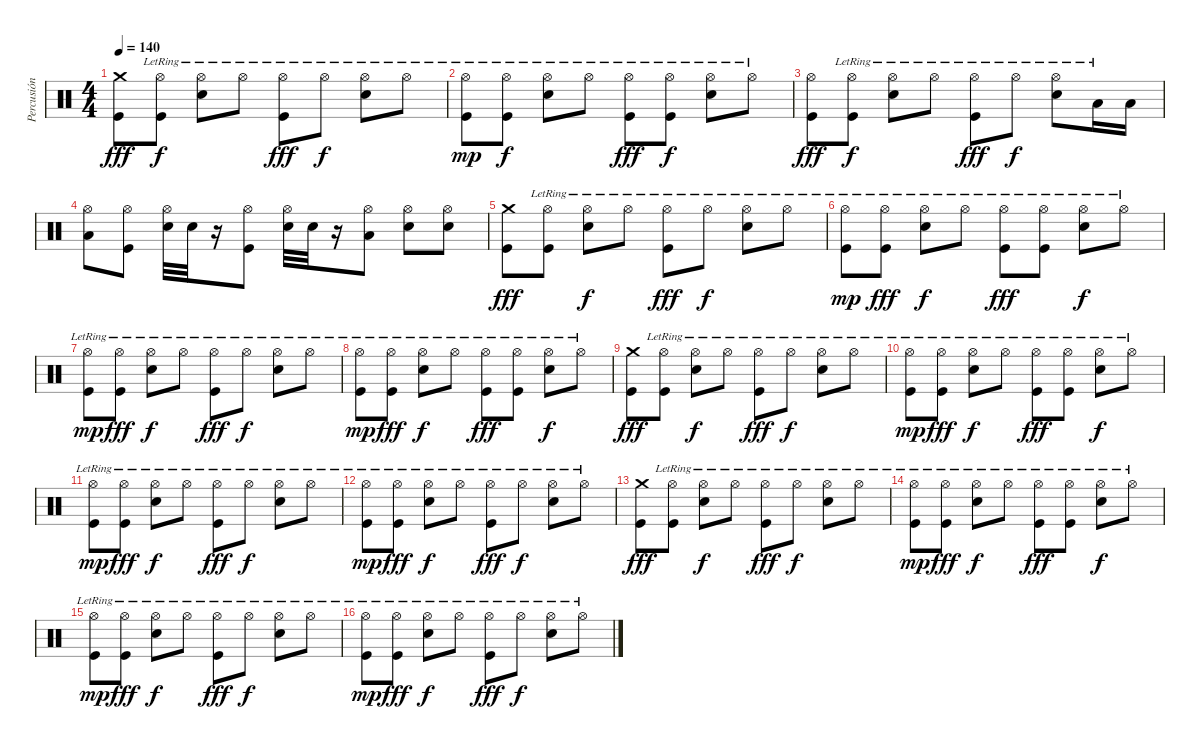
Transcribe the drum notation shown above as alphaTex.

\track ("Percusión" "Percusión") {instrument percussion}
\staff {score}
\articulation defaults
\ts (4 4)
\tempo 140
\clef neutral
\ks c
("Kick (hit)" "Crash medium (hit)").8{dy fff} ("Kick (hit)" "Hi-Hat (open)"{lr}).8{dy f} ("Snare (hit) 2" "Hi-Hat (open)"{lr}).8 "Hi-Hat (open)"{lr}.8 ("Kick (hit)" "Hi-Hat (open)"{lr}).8{dy fff} "Hi-Hat (open)"{lr}.8{dy f} ("Snare (hit) 2" "Hi-Hat (open)"{lr}).8 "Hi-Hat (open)"{lr}.8 |
("Kick (hit)" "Hi-Hat (open)"{lr}).8{dy mp} ("Kick (hit)" "Hi-Hat (open)"{lr}).8{dy f} ("Snare (hit) 2" "Hi-Hat (open)"{lr}).8 "Hi-Hat (open)"{lr}.8 ("Kick (hit)" "Hi-Hat (open)"{lr}).8{dy fff} ("Kick (hit)" "Hi-Hat (open)"{lr}).8{dy f} ("Snare (hit) 2" "Hi-Hat (open)"{lr}).8 "Hi-Hat (open)"{lr}.8 |
("Kick (hit)" "Hi-Hat (open)").8{dy fff} ("Kick (hit)" "Hi-Hat (open)"{lr}).8{dy f} ("Snare (hit) 2" "Hi-Hat (open)"{lr}).8 "Hi-Hat (open)"{lr}.8 ("Kick (hit)" "Hi-Hat (open)"{lr}).8{dy fff} "Hi-Hat (open)"{lr}.8{dy f} ("Snare (hit) 2" "Hi-Hat (open)"{lr}).8 "Low Tom (hit)"{lr}.16 "Low Tom (hit)".16 |
("Low Tom (hit)" "Hi-Hat (open)").8 ("Kick (hit)" "Hi-Hat (open)").8 ("Snare (hit) 2" "Hi-Hat (open)").32 "Snare (hit) 2".32 r.16 ("Kick (hit)" "Hi-Hat (open)").8 ("Snare (hit) 2" "Hi-Hat (open)").32 "Snare (hit) 2".32 r.16 ("Low Tom (hit)" "Hi-Hat (open)").8 ("Snare (hit) 2" "Hi-Hat (open)").8 ("Snare (hit) 2" "Hi-Hat (open)").8 |
("Kick (hit)" "Crash medium (hit)").8{dy fff} ("Kick (hit)" "Hi-Hat (open)"{lr}).8 ("Snare (hit) 2" "Hi-Hat (open)"{lr}).8{dy f} "Hi-Hat (open)"{lr}.8 ("Kick (hit)" "Hi-Hat (open)"{lr}).8{dy fff} "Hi-Hat (open)"{lr}.8{dy f} ("Snare (hit) 2" "Hi-Hat (open)"{lr}).8 "Hi-Hat (open)"{lr}.8 |
("Kick (hit)" "Hi-Hat (open)"{lr}).8{dy mp} ("Kick (hit)" "Hi-Hat (open)"{lr}).8{dy fff} ("Snare (hit) 2" "Hi-Hat (open)"{lr}).8{dy f} "Hi-Hat (open)"{lr}.8 ("Kick (hit)" "Hi-Hat (open)"{lr}).8{dy fff} ("Kick (hit)" "Hi-Hat (open)"{lr}).8 ("Snare (hit) 2" "Hi-Hat (open)"{lr}).8{dy f} "Hi-Hat (open)"{lr}.8 |
("Kick (hit)" "Hi-Hat (open)"{lr}).8{dy mp} ("Kick (hit)" "Hi-Hat (open)"{lr}).8{dy fff} ("Snare (hit) 2" "Hi-Hat (open)"{lr}).8{dy f} "Hi-Hat (open)"{lr}.8 ("Kick (hit)" "Hi-Hat (open)"{lr}).8{dy fff} "Hi-Hat (open)"{lr}.8{dy f} ("Snare (hit) 2" "Hi-Hat (open)"{lr}).8 "Hi-Hat (open)"{lr}.8 |
("Kick (hit)" "Hi-Hat (open)"{lr}).8{dy mp} ("Kick (hit)" "Hi-Hat (open)"{lr}).8{dy fff} ("Snare (hit) 2" "Hi-Hat (open)"{lr}).8{dy f} "Hi-Hat (open)"{lr}.8 ("Kick (hit)" "Hi-Hat (open)"{lr}).8{dy fff} ("Kick (hit)" "Hi-Hat (open)"{lr}).8 ("Snare (hit) 2" "Hi-Hat (open)"{lr}).8{dy f} "Hi-Hat (open)"{lr}.8 |
("Kick (hit)" "Crash medium (hit)").8{dy fff} ("Kick (hit)" "Hi-Hat (open)"{lr}).8 ("Snare (hit) 2" "Hi-Hat (open)"{lr}).8{dy f} "Hi-Hat (open)"{lr}.8 ("Kick (hit)" "Hi-Hat (open)"{lr}).8{dy fff} "Hi-Hat (open)"{lr}.8{dy f} ("Snare (hit) 2" "Hi-Hat (open)"{lr}).8 "Hi-Hat (open)"{lr}.8 |
("Kick (hit)" "Hi-Hat (open)"{lr}).8{dy mp} ("Kick (hit)" "Hi-Hat (open)"{lr}).8{dy fff} ("Snare (hit) 2" "Hi-Hat (open)"{lr}).8{dy f} "Hi-Hat (open)"{lr}.8 ("Kick (hit)" "Hi-Hat (open)"{lr}).8{dy fff} ("Kick (hit)" "Hi-Hat (open)"{lr}).8 ("Snare (hit) 2" "Hi-Hat (open)"{lr}).8{dy f} "Hi-Hat (open)"{lr}.8 |
("Kick (hit)" "Hi-Hat (open)"{lr}).8{dy mp} ("Kick (hit)" "Hi-Hat (open)"{lr}).8{dy fff} ("Snare (hit) 2" "Hi-Hat (open)"{lr}).8{dy f} "Hi-Hat (open)"{lr}.8 ("Kick (hit)" "Hi-Hat (open)"{lr}).8{dy fff} "Hi-Hat (open)"{lr}.8{dy f} ("Snare (hit) 2" "Hi-Hat (open)"{lr}).8 "Hi-Hat (open)"{lr}.8 |
("Kick (hit)" "Hi-Hat (open)"{lr}).8{dy mp} ("Kick (hit)" "Hi-Hat (open)"{lr}).8{dy fff} ("Snare (hit) 2" "Hi-Hat (open)"{lr}).8{dy f} "Hi-Hat (open)"{lr}.8 ("Kick (hit)" "Hi-Hat (open)"{lr}).8{dy fff} "Hi-Hat (open)"{lr}.8{dy f} ("Snare (hit) 2" "Hi-Hat (open)"{lr}).8 "Hi-Hat (open)"{lr}.8 |
("Kick (hit)" "Crash medium (hit)").8{dy fff} ("Kick (hit)" "Hi-Hat (open)"{lr}).8 ("Snare (hit) 2" "Hi-Hat (open)"{lr}).8{dy f} "Hi-Hat (open)"{lr}.8 ("Kick (hit)" "Hi-Hat (open)"{lr}).8{dy fff} "Hi-Hat (open)"{lr}.8{dy f} ("Snare (hit) 2" "Hi-Hat (open)"{lr}).8 "Hi-Hat (open)"{lr}.8 |
("Kick (hit)" "Hi-Hat (open)"{lr}).8{dy mp} ("Kick (hit)" "Hi-Hat (open)"{lr}).8{dy fff} ("Snare (hit) 2" "Hi-Hat (open)"{lr}).8{dy f} "Hi-Hat (open)"{lr}.8 ("Kick (hit)" "Hi-Hat (open)"{lr}).8{dy fff} ("Kick (hit)" "Hi-Hat (open)"{lr}).8 ("Snare (hit) 2" "Hi-Hat (open)"{lr}).8{dy f} "Hi-Hat (open)"{lr}.8 |
("Kick (hit)" "Hi-Hat (open)"{lr}).8{dy mp} ("Kick (hit)" "Hi-Hat (open)"{lr}).8{dy fff} ("Snare (hit) 2" "Hi-Hat (open)"{lr}).8{dy f} "Hi-Hat (open)"{lr}.8 ("Kick (hit)" "Hi-Hat (open)"{lr}).8{dy fff} "Hi-Hat (open)"{lr}.8{dy f} ("Snare (hit) 2" "Hi-Hat (open)"{lr}).8 "Hi-Hat (open)"{lr}.8 |
("Kick (hit)" "Hi-Hat (open)"{lr}).8{dy mp} ("Kick (hit)" "Hi-Hat (open)"{lr}).8{dy fff} ("Snare (hit) 2" "Hi-Hat (open)"{lr}).8{dy f} "Hi-Hat (open)"{lr}.8 ("Kick (hit)" "Hi-Hat (open)"{lr}).8{dy fff} "Hi-Hat (open)"{lr}.8{dy f} ("Snare (hit) 2" "Hi-Hat (open)"{lr}).8 "Hi-Hat (open)"{lr}.8
